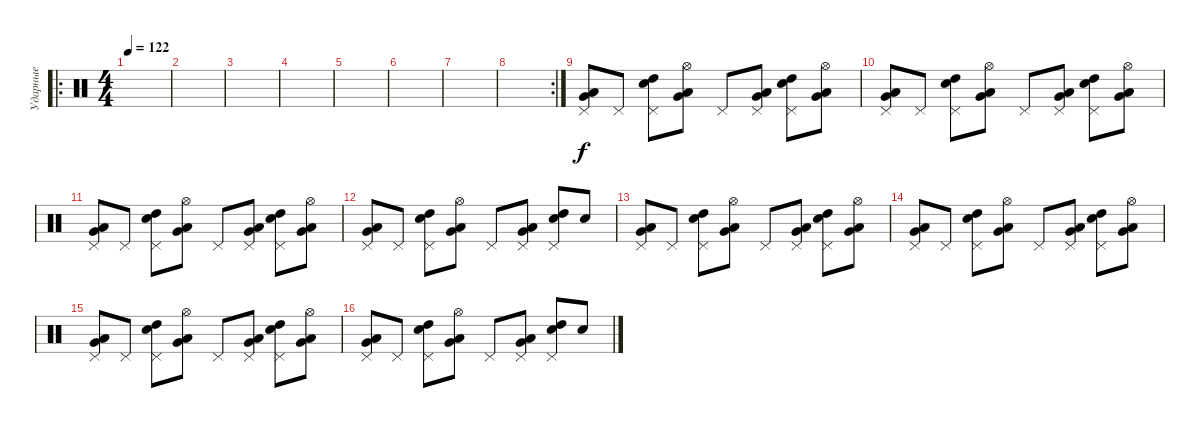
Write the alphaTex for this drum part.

\track ("Ударные" "Ударные") {instrument percussion}
\staff {score}
\articulation defaults
\ro
\ts (4 4)
\tempo 122
\clef neutral
\ks c
|
|
|
|
|
|
|
\rc 2
|
("Pedal Hi-Hat (hit)" "Low Floor Tom (hit)" "Very Low Tom (hit)").8 "Pedal Hi-Hat (hit)".8 ("Pedal Hi-Hat (hit)" "High Tom (hit)" "Snare (hit) 2").8 ("Hi-Hat (open)" "Low Floor Tom (hit)" "Very Low Tom (hit)").8 "Pedal Hi-Hat (hit)".8 ("Pedal Hi-Hat (hit)" "Low Floor Tom (hit)" "Very Low Tom (hit)").8 ("Pedal Hi-Hat (hit)" "High Tom (hit)" "Snare (hit) 2").8 ("Hi-Hat (open)" "Low Floor Tom (hit)" "Very Low Tom (hit)").8 |
("Pedal Hi-Hat (hit)" "Low Floor Tom (hit)" "Very Low Tom (hit)").8 "Pedal Hi-Hat (hit)".8 ("Pedal Hi-Hat (hit)" "High Tom (hit)" "Snare (hit) 2").8 ("Hi-Hat (open)" "Low Floor Tom (hit)" "Very Low Tom (hit)").8 "Pedal Hi-Hat (hit)".8 ("Pedal Hi-Hat (hit)" "Low Floor Tom (hit)" "Very Low Tom (hit)").8 ("Pedal Hi-Hat (hit)" "High Tom (hit)" "Snare (hit) 2").8 ("Hi-Hat (open)" "Low Floor Tom (hit)" "Very Low Tom (hit)").8 |
("Pedal Hi-Hat (hit)" "Low Floor Tom (hit)" "Very Low Tom (hit)").8 "Pedal Hi-Hat (hit)".8 ("Pedal Hi-Hat (hit)" "High Tom (hit)" "Snare (hit) 2").8 ("Hi-Hat (open)" "Low Floor Tom (hit)" "Very Low Tom (hit)").8 "Pedal Hi-Hat (hit)".8 ("Pedal Hi-Hat (hit)" "Low Floor Tom (hit)" "Very Low Tom (hit)").8 ("Pedal Hi-Hat (hit)" "High Tom (hit)" "Snare (hit) 2").8 ("Hi-Hat (open)" "Low Floor Tom (hit)" "Very Low Tom (hit)").8 |
("Pedal Hi-Hat (hit)" "Low Floor Tom (hit)" "Very Low Tom (hit)").8 "Pedal Hi-Hat (hit)".8 ("Pedal Hi-Hat (hit)" "High Tom (hit)" "Snare (hit) 2").8 ("Hi-Hat (open)" "Low Floor Tom (hit)" "Very Low Tom (hit)").8 "Pedal Hi-Hat (hit)".8 ("Pedal Hi-Hat (hit)" "Low Floor Tom (hit)" "Very Low Tom (hit)").8 ("Pedal Hi-Hat (hit)" "High Tom (hit)" "Snare (hit) 2").8 "Snare (hit) 2".8 |
("Pedal Hi-Hat (hit)" "Low Floor Tom (hit)" "Very Low Tom (hit)").8 "Pedal Hi-Hat (hit)".8 ("Pedal Hi-Hat (hit)" "High Tom (hit)" "Snare (hit) 2").8 ("Hi-Hat (open)" "Low Floor Tom (hit)" "Very Low Tom (hit)").8 "Pedal Hi-Hat (hit)".8 ("Pedal Hi-Hat (hit)" "Low Floor Tom (hit)" "Very Low Tom (hit)").8 ("Pedal Hi-Hat (hit)" "High Tom (hit)" "Snare (hit) 2").8 ("Hi-Hat (open)" "Low Floor Tom (hit)" "Very Low Tom (hit)").8 |
("Pedal Hi-Hat (hit)" "Low Floor Tom (hit)" "Very Low Tom (hit)").8 "Pedal Hi-Hat (hit)".8 ("Pedal Hi-Hat (hit)" "High Tom (hit)" "Snare (hit) 2").8 ("Hi-Hat (open)" "Low Floor Tom (hit)" "Very Low Tom (hit)").8 "Pedal Hi-Hat (hit)".8 ("Pedal Hi-Hat (hit)" "Low Floor Tom (hit)" "Very Low Tom (hit)").8 ("Pedal Hi-Hat (hit)" "High Tom (hit)" "Snare (hit) 2").8 ("Hi-Hat (open)" "Low Floor Tom (hit)" "Very Low Tom (hit)").8 |
("Pedal Hi-Hat (hit)" "Low Floor Tom (hit)" "Very Low Tom (hit)").8 "Pedal Hi-Hat (hit)".8 ("Pedal Hi-Hat (hit)" "High Tom (hit)" "Snare (hit) 2").8 ("Hi-Hat (open)" "Low Floor Tom (hit)" "Very Low Tom (hit)").8 "Pedal Hi-Hat (hit)".8 ("Pedal Hi-Hat (hit)" "Low Floor Tom (hit)" "Very Low Tom (hit)").8 ("Pedal Hi-Hat (hit)" "High Tom (hit)" "Snare (hit) 2").8 ("Hi-Hat (open)" "Low Floor Tom (hit)" "Very Low Tom (hit)").8 |
("Pedal Hi-Hat (hit)" "Low Floor Tom (hit)" "Very Low Tom (hit)").8 "Pedal Hi-Hat (hit)".8 ("Pedal Hi-Hat (hit)" "High Tom (hit)" "Snare (hit) 2").8 ("Hi-Hat (open)" "Low Floor Tom (hit)" "Very Low Tom (hit)").8 "Pedal Hi-Hat (hit)".8 ("Pedal Hi-Hat (hit)" "Low Floor Tom (hit)" "Very Low Tom (hit)").8 ("Pedal Hi-Hat (hit)" "High Tom (hit)" "Snare (hit) 2").8 "Snare (hit) 2".8
